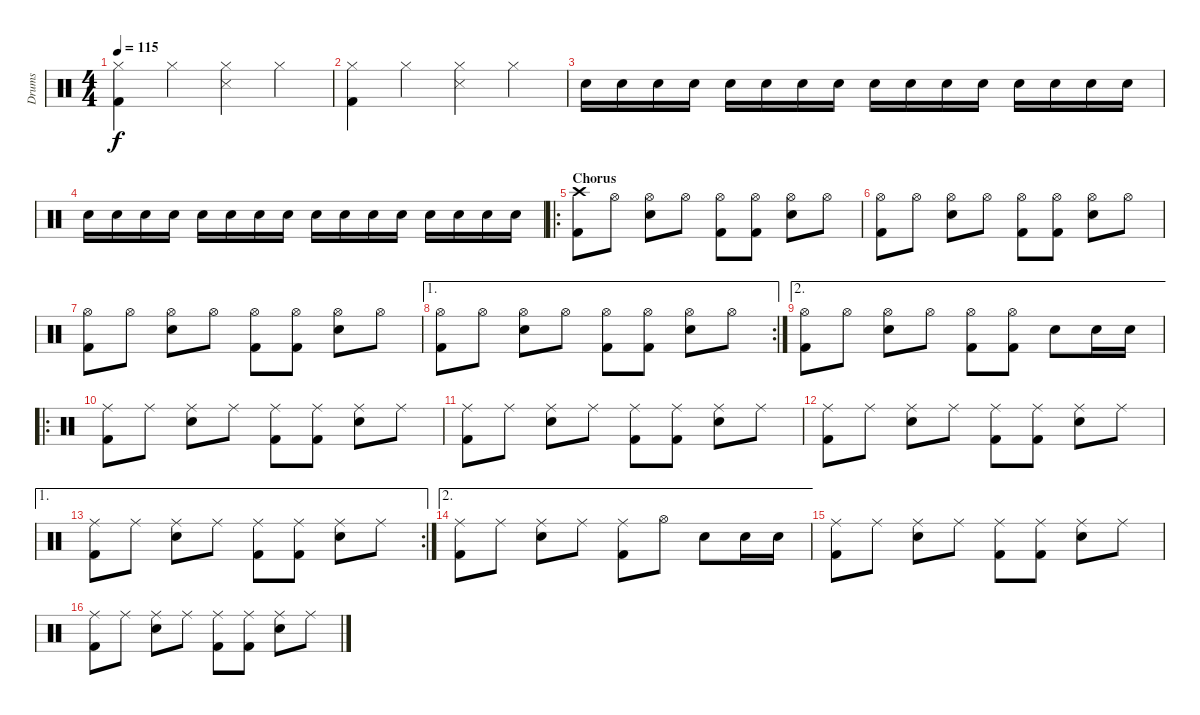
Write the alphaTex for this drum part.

\track ("Drums" "Drums") {instrument percussion}
\staff {score}
\articulation defaults
\ts (4 4)
\tempo 115
\clef neutral
\ks c
("Hi-Hat (closed)" "Kick (hit) 2").4{dy f} "Hi-Hat (closed)".4 ("Hi-Hat (closed)" "Snare (side stick) 3").4 "Hi-Hat (closed)".4 |
("Hi-Hat (closed)" "Kick (hit) 2").4{volume 0} "Hi-Hat (closed)".4 ("Hi-Hat (closed)" "Snare (side stick) 3").4 "Hi-Hat (closed)".4 |
"Electric Snare (hit)".16{volume 16} "Electric Snare (hit)".16 "Electric Snare (hit)".16 "Electric Snare (hit)".16 "Electric Snare (hit)".16 "Electric Snare (hit)".16 "Electric Snare (hit)".16 "Electric Snare (hit)".16 "Electric Snare (hit)".16 "Electric Snare (hit)".16 "Electric Snare (hit)".16 "Electric Snare (hit)".16 "Electric Snare (hit)".16 "Electric Snare (hit)".16 "Electric Snare (hit)".16 "Electric Snare (hit)".16 |
"Electric Snare (hit)".16 "Electric Snare (hit)".16 "Electric Snare (hit)".16 "Electric Snare (hit)".16 "Electric Snare (hit)".16 "Electric Snare (hit)".16 "Electric Snare (hit)".16 "Electric Snare (hit)".16 "Electric Snare (hit)".16 "Electric Snare (hit)".16 "Electric Snare (hit)".16 "Electric Snare (hit)".16 "Electric Snare (hit)".16 "Electric Snare (hit)".16 "Electric Snare (hit)".16 "Electric Snare (hit)".16 |
\ro
\section ("" "Chorus")
("Crash high (hit)" "Kick (hit) 2").8 "Hi-Hat (open)".8 ("Hi-Hat (open)" "Electric Snare (hit)").8 "Hi-Hat (open)".8 ("Hi-Hat (open)" "Kick (hit) 2").8 ("Hi-Hat (open)" "Kick (hit) 2").8 ("Hi-Hat (open)" "Electric Snare (hit)").8 "Hi-Hat (open)".8 |
("Hi-Hat (open)" "Kick (hit) 2").8 "Hi-Hat (open)".8 ("Hi-Hat (open)" "Electric Snare (hit)").8 "Hi-Hat (open)".8 ("Hi-Hat (open)" "Kick (hit) 2").8 ("Hi-Hat (open)" "Kick (hit) 2").8 ("Hi-Hat (open)" "Electric Snare (hit)").8 "Hi-Hat (open)".8 |
("Hi-Hat (open)" "Kick (hit) 2").8 "Hi-Hat (open)".8 ("Hi-Hat (open)" "Electric Snare (hit)").8 "Hi-Hat (open)".8 ("Hi-Hat (open)" "Kick (hit) 2").8 ("Hi-Hat (open)" "Kick (hit) 2").8 ("Hi-Hat (open)" "Electric Snare (hit)").8 "Hi-Hat (open)".8 |
\ae 1
\rc 2
("Hi-Hat (open)" "Kick (hit) 2").8 "Hi-Hat (open)".8 ("Hi-Hat (open)" "Electric Snare (hit)").8 "Hi-Hat (open)".8 ("Hi-Hat (open)" "Kick (hit) 2").8 ("Hi-Hat (open)" "Kick (hit) 2").8 ("Hi-Hat (open)" "Electric Snare (hit)").8 "Hi-Hat (open)".8 |
\ae 2
("Hi-Hat (open)" "Kick (hit) 2").8 "Hi-Hat (open)".8 ("Hi-Hat (open)" "Electric Snare (hit)").8 "Hi-Hat (open)".8 ("Hi-Hat (open)" "Kick (hit) 2").8 ("Hi-Hat (open)" "Kick (hit) 2").8 "Electric Snare (hit)".8 "Electric Snare (hit)".16 "Electric Snare (hit)".16 |
\ro
("Ride (middle)" "Kick (hit) 2").8 "Ride (middle)".8 ("Ride (middle)" "Electric Snare (hit)").8 "Ride (middle)".8 ("Ride (middle)" "Kick (hit) 2").8 ("Ride (middle)" "Kick (hit) 2").8 ("Ride (middle)" "Electric Snare (hit)").8 "Ride (middle)".8 |
("Ride (middle)" "Kick (hit) 2").8 "Ride (middle)".8 ("Ride (middle)" "Electric Snare (hit)").8 "Ride (middle)".8 ("Ride (middle)" "Kick (hit) 2").8 ("Ride (middle)" "Kick (hit) 2").8 ("Ride (middle)" "Electric Snare (hit)").8 "Ride (middle)".8 |
("Ride (middle)" "Kick (hit) 2").8 "Ride (middle)".8 ("Ride (middle)" "Electric Snare (hit)").8 "Ride (middle)".8 ("Ride (middle)" "Kick (hit) 2").8 ("Ride (middle)" "Kick (hit) 2").8 ("Ride (middle)" "Electric Snare (hit)").8 "Ride (middle)".8 |
\ae 1
\rc 2
("Ride (middle)" "Kick (hit) 2").8 "Ride (middle)".8 ("Ride (middle)" "Electric Snare (hit)").8 "Ride (middle)".8 ("Ride (middle)" "Kick (hit) 2").8 ("Ride (middle)" "Kick (hit) 2").8 ("Ride (middle)" "Electric Snare (hit)").8 "Ride (middle)".8 |
\ae 2
("Ride (middle)" "Kick (hit) 2").8 "Ride (middle)".8 ("Ride (middle)" "Electric Snare (hit)").8 "Ride (middle)".8 ("Ride (middle)" "Kick (hit) 2").8 "Hi-Hat (open)".8 "Electric Snare (hit)".8 "Electric Snare (hit)".16 "Electric Snare (hit)".16 |
("Ride (middle)" "Kick (hit) 2").8{volume 8} "Ride (middle)".8 ("Ride (middle)" "Electric Snare (hit)").8 "Ride (middle)".8 ("Ride (middle)" "Kick (hit) 2").8 ("Ride (middle)" "Kick (hit) 2").8 ("Ride (middle)" "Electric Snare (hit)").8 "Ride (middle)".8 |
("Ride (middle)" "Kick (hit) 2").8 "Ride (middle)".8 ("Ride (middle)" "Electric Snare (hit)").8 "Ride (middle)".8 ("Ride (middle)" "Kick (hit) 2").8 ("Ride (middle)" "Kick (hit) 2").8 ("Ride (middle)" "Electric Snare (hit)").8 "Ride (middle)".8
